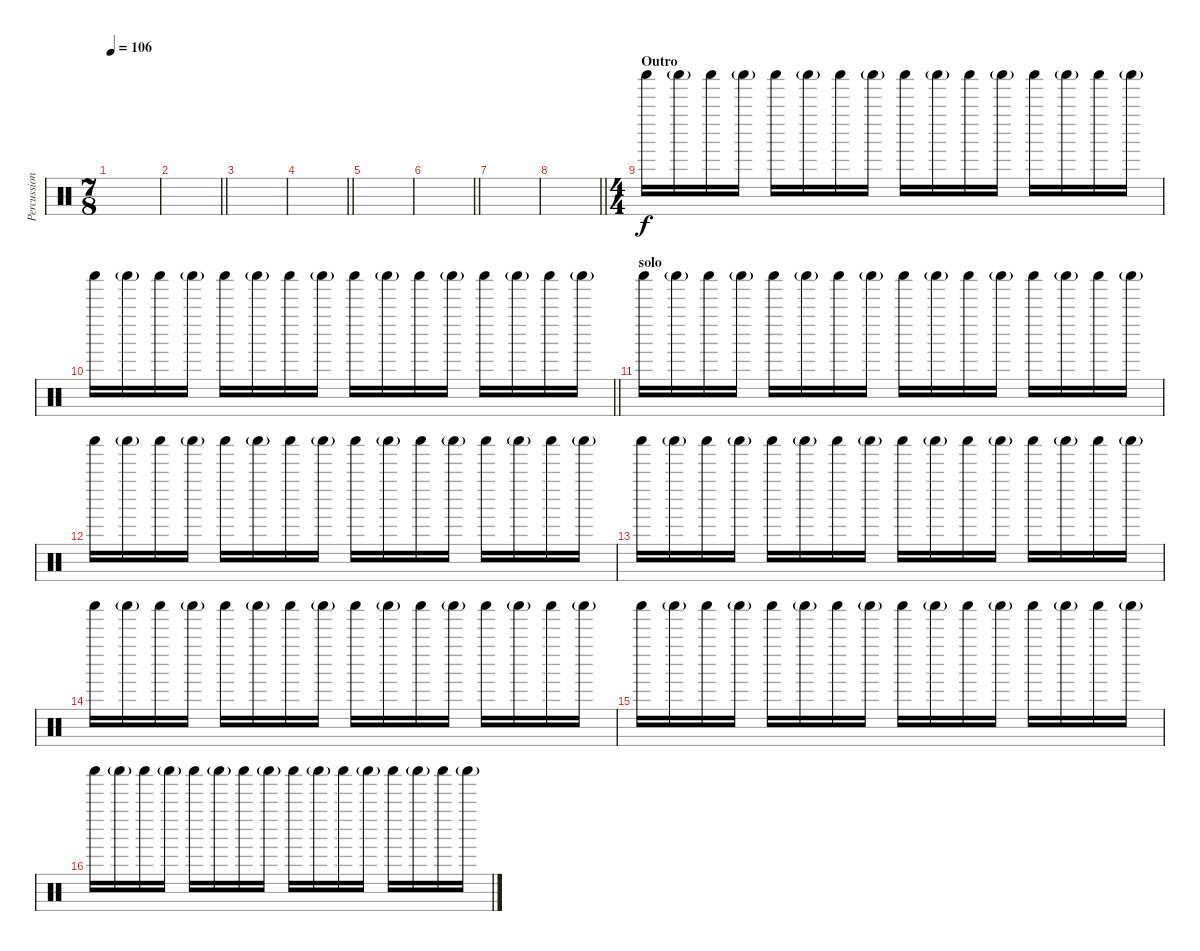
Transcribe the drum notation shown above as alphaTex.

\track ("Percussion 1" "Percussion") {instrument percussion}
\staff {score}
\articulation defaults
\ts (7 8)
\tempo 106
\clef neutral
\ks c
|
\barLineRight lightlight
|
|
\barLineRight lightlight
|
|
\barLineRight lightlight
|
|
\barLineRight lightlight
|
\ts (4 4)
\section ("" "Outro")
"Shaker (hit)".16 "Shaker (hit)"{g}.16 "Shaker (hit)".16 "Shaker (hit)"{g}.16 "Shaker (hit)".16 "Shaker (hit)"{g}.16 "Shaker (hit)".16 "Shaker (hit)"{g}.16 "Shaker (hit)".16 "Shaker (hit)"{g}.16 "Shaker (hit)".16 "Shaker (hit)"{g}.16 "Shaker (hit)".16 "Shaker (hit)"{g}.16 "Shaker (hit)".16 "Shaker (hit)"{g}.16 |
\barLineRight lightlight "Shaker (hit)".16 "Shaker (hit)"{g}.16 "Shaker (hit)".16 "Shaker (hit)"{g}.16 "Shaker (hit)".16 "Shaker (hit)"{g}.16 "Shaker (hit)".16 "Shaker (hit)"{g}.16 "Shaker (hit)".16 "Shaker (hit)"{g}.16 "Shaker (hit)".16 "Shaker (hit)"{g}.16 "Shaker (hit)".16 "Shaker (hit)"{g}.16 "Shaker (hit)".16 "Shaker (hit)"{g}.16
|
\section ("" "solo")
"Shaker (hit)".16 "Shaker (hit)"{g}.16 "Shaker (hit)".16 "Shaker (hit)"{g}.16 "Shaker (hit)".16 "Shaker (hit)"{g}.16 "Shaker (hit)".16 "Shaker (hit)"{g}.16 "Shaker (hit)".16 "Shaker (hit)"{g}.16 "Shaker (hit)".16 "Shaker (hit)"{g}.16 "Shaker (hit)".16 "Shaker (hit)"{g}.16 "Shaker (hit)".16 "Shaker (hit)"{g}.16 |
"Shaker (hit)".16 "Shaker (hit)"{g}.16 "Shaker (hit)".16 "Shaker (hit)"{g}.16 "Shaker (hit)".16 "Shaker (hit)"{g}.16 "Shaker (hit)".16 "Shaker (hit)"{g}.16 "Shaker (hit)".16 "Shaker (hit)"{g}.16 "Shaker (hit)".16 "Shaker (hit)"{g}.16 "Shaker (hit)".16 "Shaker (hit)"{g}.16 "Shaker (hit)".16 "Shaker (hit)"{g}.16 |
"Shaker (hit)".16 "Shaker (hit)"{g}.16 "Shaker (hit)".16 "Shaker (hit)"{g}.16 "Shaker (hit)".16 "Shaker (hit)"{g}.16 "Shaker (hit)".16 "Shaker (hit)"{g}.16 "Shaker (hit)".16 "Shaker (hit)"{g}.16 "Shaker (hit)".16 "Shaker (hit)"{g}.16 "Shaker (hit)".16 "Shaker (hit)"{g}.16 "Shaker (hit)".16 "Shaker (hit)"{g}.16 |
"Shaker (hit)".16 "Shaker (hit)"{g}.16 "Shaker (hit)".16 "Shaker (hit)"{g}.16 "Shaker (hit)".16 "Shaker (hit)"{g}.16 "Shaker (hit)".16 "Shaker (hit)"{g}.16 "Shaker (hit)".16 "Shaker (hit)"{g}.16 "Shaker (hit)".16 "Shaker (hit)"{g}.16 "Shaker (hit)".16 "Shaker (hit)"{g}.16 "Shaker (hit)".16 "Shaker (hit)"{g}.16 |
"Shaker (hit)".16 "Shaker (hit)"{g}.16 "Shaker (hit)".16 "Shaker (hit)"{g}.16 "Shaker (hit)".16 "Shaker (hit)"{g}.16 "Shaker (hit)".16 "Shaker (hit)"{g}.16 "Shaker (hit)".16 "Shaker (hit)"{g}.16 "Shaker (hit)".16 "Shaker (hit)"{g}.16 "Shaker (hit)".16 "Shaker (hit)"{g}.16 "Shaker (hit)".16 "Shaker (hit)"{g}.16 |
"Shaker (hit)".16 "Shaker (hit)"{g}.16 "Shaker (hit)".16 "Shaker (hit)"{g}.16 "Shaker (hit)".16 "Shaker (hit)"{g}.16 "Shaker (hit)".16 "Shaker (hit)"{g}.16 "Shaker (hit)".16 "Shaker (hit)"{g}.16 "Shaker (hit)".16 "Shaker (hit)"{g}.16 "Shaker (hit)".16 "Shaker (hit)"{g}.16 "Shaker (hit)".16 "Shaker (hit)"{g}.16
